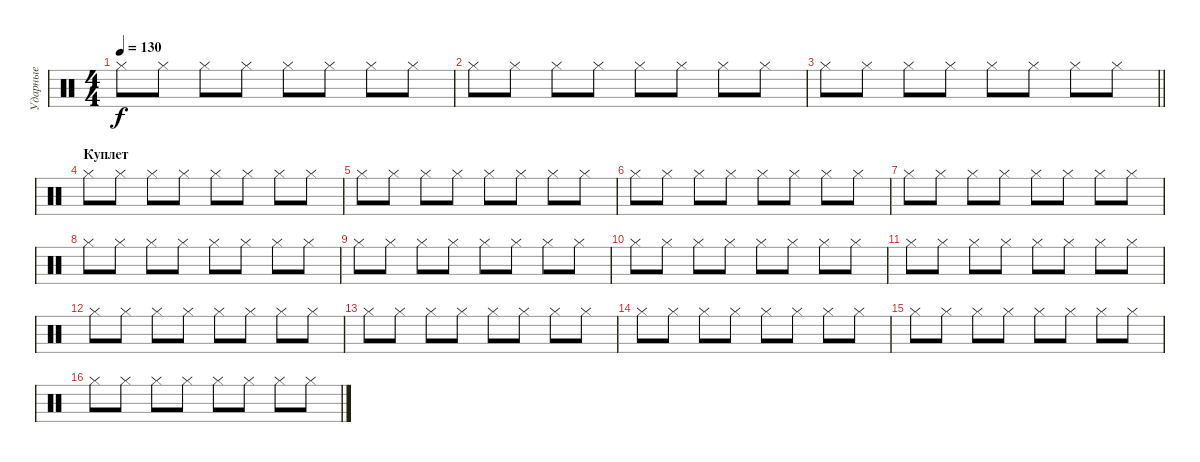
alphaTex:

\track ("Ударные" "Ударные") {instrument percussion}
\staff {score}
\articulation defaults
\ts (4 4)
\tempo 130
\clef neutral
\ks c "Hi-Hat (closed)".8{dy f} "Hi-Hat (closed)".8 "Hi-Hat (closed)".8 "Hi-Hat (closed)".8 "Hi-Hat (closed)".8 "Hi-Hat (closed)".8 "Hi-Hat (closed)".8 "Hi-Hat (closed)".8
|
"Hi-Hat (closed)".8 "Hi-Hat (closed)".8 "Hi-Hat (closed)".8 "Hi-Hat (closed)".8 "Hi-Hat (closed)".8 "Hi-Hat (closed)".8 "Hi-Hat (closed)".8 "Hi-Hat (closed)".8 |
\barLineRight lightlight "Hi-Hat (closed)".8 "Hi-Hat (closed)".8 "Hi-Hat (closed)".8 "Hi-Hat (closed)".8 "Hi-Hat (closed)".8 "Hi-Hat (closed)".8 "Hi-Hat (closed)".8 "Hi-Hat (closed)".8
|
\section ("" "Куплет")
"Hi-Hat (closed)".8 "Hi-Hat (closed)".8 "Hi-Hat (closed)".8 "Hi-Hat (closed)".8 "Hi-Hat (closed)".8 "Hi-Hat (closed)".8 "Hi-Hat (closed)".8 "Hi-Hat (closed)".8 |
"Hi-Hat (closed)".8 "Hi-Hat (closed)".8 "Hi-Hat (closed)".8 "Hi-Hat (closed)".8 "Hi-Hat (closed)".8 "Hi-Hat (closed)".8 "Hi-Hat (closed)".8 "Hi-Hat (closed)".8 |
"Hi-Hat (closed)".8 "Hi-Hat (closed)".8 "Hi-Hat (closed)".8 "Hi-Hat (closed)".8 "Hi-Hat (closed)".8 "Hi-Hat (closed)".8 "Hi-Hat (closed)".8 "Hi-Hat (closed)".8 |
"Hi-Hat (closed)".8 "Hi-Hat (closed)".8 "Hi-Hat (closed)".8 "Hi-Hat (closed)".8 "Hi-Hat (closed)".8 "Hi-Hat (closed)".8 "Hi-Hat (closed)".8 "Hi-Hat (closed)".8 |
"Hi-Hat (closed)".8 "Hi-Hat (closed)".8 "Hi-Hat (closed)".8 "Hi-Hat (closed)".8 "Hi-Hat (closed)".8 "Hi-Hat (closed)".8 "Hi-Hat (closed)".8 "Hi-Hat (closed)".8 |
"Hi-Hat (closed)".8 "Hi-Hat (closed)".8 "Hi-Hat (closed)".8 "Hi-Hat (closed)".8 "Hi-Hat (closed)".8 "Hi-Hat (closed)".8 "Hi-Hat (closed)".8 "Hi-Hat (closed)".8 |
"Hi-Hat (closed)".8 "Hi-Hat (closed)".8 "Hi-Hat (closed)".8 "Hi-Hat (closed)".8 "Hi-Hat (closed)".8 "Hi-Hat (closed)".8 "Hi-Hat (closed)".8 "Hi-Hat (closed)".8 |
"Hi-Hat (closed)".8 "Hi-Hat (closed)".8 "Hi-Hat (closed)".8 "Hi-Hat (closed)".8 "Hi-Hat (closed)".8 "Hi-Hat (closed)".8 "Hi-Hat (closed)".8 "Hi-Hat (closed)".8 |
"Hi-Hat (closed)".8 "Hi-Hat (closed)".8 "Hi-Hat (closed)".8 "Hi-Hat (closed)".8 "Hi-Hat (closed)".8 "Hi-Hat (closed)".8 "Hi-Hat (closed)".8 "Hi-Hat (closed)".8 |
"Hi-Hat (closed)".8 "Hi-Hat (closed)".8 "Hi-Hat (closed)".8 "Hi-Hat (closed)".8 "Hi-Hat (closed)".8 "Hi-Hat (closed)".8 "Hi-Hat (closed)".8 "Hi-Hat (closed)".8 |
"Hi-Hat (closed)".8 "Hi-Hat (closed)".8 "Hi-Hat (closed)".8 "Hi-Hat (closed)".8 "Hi-Hat (closed)".8 "Hi-Hat (closed)".8 "Hi-Hat (closed)".8 "Hi-Hat (closed)".8 |
"Hi-Hat (closed)".8 "Hi-Hat (closed)".8 "Hi-Hat (closed)".8 "Hi-Hat (closed)".8 "Hi-Hat (closed)".8 "Hi-Hat (closed)".8 "Hi-Hat (closed)".8 "Hi-Hat (closed)".8 |
"Hi-Hat (closed)".8 "Hi-Hat (closed)".8 "Hi-Hat (closed)".8 "Hi-Hat (closed)".8 "Hi-Hat (closed)".8 "Hi-Hat (closed)".8 "Hi-Hat (closed)".8 "Hi-Hat (closed)".8
